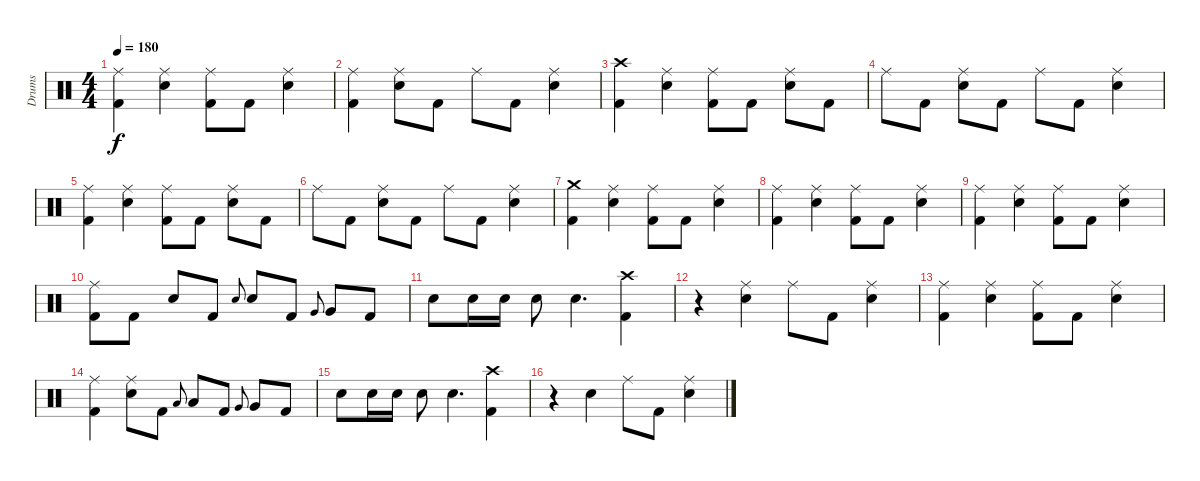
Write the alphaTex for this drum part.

\track ("Drums" "Drums") {instrument percussion}
\staff {score}
\articulation defaults
\ts (4 4)
\tempo 180
\clef neutral
\ks c
("Ride (middle)" "Kick (hit) 2").4{dy f} ("Ride (middle)" "Electric Snare (hit)").4 ("Ride (middle)" "Kick (hit) 2").8 "Kick (hit) 2".8 ("Ride (middle)" "Electric Snare (hit)").4 |
("Ride (middle)" "Kick (hit) 2").4 ("Ride (middle)" "Electric Snare (hit)").8 "Kick (hit) 2".8 "Ride (middle)".8 "Kick (hit) 2".8 ("Ride (middle)" "Electric Snare (hit)").4 |
("Crash high (hit)" "Kick (hit) 2").4 ("Ride (middle)" "Electric Snare (hit)").4 ("Ride (middle)" "Kick (hit) 2").8 "Kick (hit) 2".8 ("Ride (middle)" "Electric Snare (hit)").8 "Kick (hit) 2".8 |
"Ride (middle)".8 "Kick (hit) 2".8 ("Ride (middle)" "Electric Snare (hit)").8 "Kick (hit) 2".8 "Ride (middle)".8 "Kick (hit) 2".8 ("Ride (middle)" "Electric Snare (hit)").4 |
("Ride (middle)" "Kick (hit) 2").4 ("Ride (middle)" "Electric Snare (hit)").4 ("Ride (middle)" "Kick (hit) 2").8 "Kick (hit) 2".8 ("Ride (middle)" "Electric Snare (hit)").8 "Kick (hit) 2".8 |
"Ride (middle)".8 "Kick (hit) 2".8 ("Ride (middle)" "Electric Snare (hit)").8 "Kick (hit) 2".8 "Ride (middle)".8 "Kick (hit) 2".8 ("Ride (middle)" "Electric Snare (hit)").4 |
("Crash medium (hit)" "Kick (hit) 2").4 ("Ride (middle)" "Electric Snare (hit)").4 ("Ride (middle)" "Kick (hit) 2").8 "Kick (hit) 2".8 ("Ride (middle)" "Electric Snare (hit)").4 |
("Ride (middle)" "Kick (hit) 2").4 ("Ride (middle)" "Electric Snare (hit)").4 ("Ride (middle)" "Kick (hit) 2").8 "Kick (hit) 2".8 ("Ride (middle)" "Electric Snare (hit)").4 |
("Ride (middle)" "Kick (hit) 2").4 ("Ride (middle)" "Electric Snare (hit)").4 ("Ride (middle)" "Kick (hit) 2").8 "Kick (hit) 2".8 ("Ride (middle)" "Electric Snare (hit)").4 |
("Ride (middle)" "Kick (hit) 2").8 "Kick (hit) 2".8 "Electric Snare (hit)".8 "Kick (hit) 2".8 "Electric Snare (hit)".8{gr onbeat} "Electric Snare (hit)".8 "Kick (hit) 2".8 "Very Low Tom (hit)".8{gr onbeat} "Very Low Tom (hit)".8 "Kick (hit) 2".8 |
"Electric Snare (hit)".8 "Electric Snare (hit)".16 "Electric Snare (hit)".16 "Electric Snare (hit)".8 "Electric Snare (hit)".4{d} ("Crash high (hit)" "Kick (hit) 2").4 |
r.4 ("Ride (middle)" "Electric Snare (hit)").4 "Ride (middle)".8 "Kick (hit) 2".8 ("Ride (middle)" "Electric Snare (hit)").4 |
("Ride (middle)" "Kick (hit) 2").4 ("Ride (middle)" "Electric Snare (hit)").4 ("Ride (middle)" "Kick (hit) 2").8 "Kick (hit) 2".8 ("Ride (middle)" "Electric Snare (hit)").4 |
("Ride (middle)" "Kick (hit) 2").4 ("Ride (middle)" "Electric Snare (hit)").8 "Kick (hit) 2".8 "Low Tom (hit)".8{gr onbeat} "Low Tom (hit)".8 "Kick (hit) 2".8 "Very Low Tom (hit)".8{gr onbeat} "Very Low Tom (hit)".8 "Kick (hit) 2".8 |
"Electric Snare (hit)".8 "Electric Snare (hit)".16 "Electric Snare (hit)".16 "Electric Snare (hit)".8 "Electric Snare (hit)".4{d} ("Crash high (hit)" "Kick (hit) 2").4 |
r.4 "Electric Snare (hit)".4 "Ride (middle)".8 "Kick (hit) 2".8 ("Ride (middle)" "Electric Snare (hit)").4
